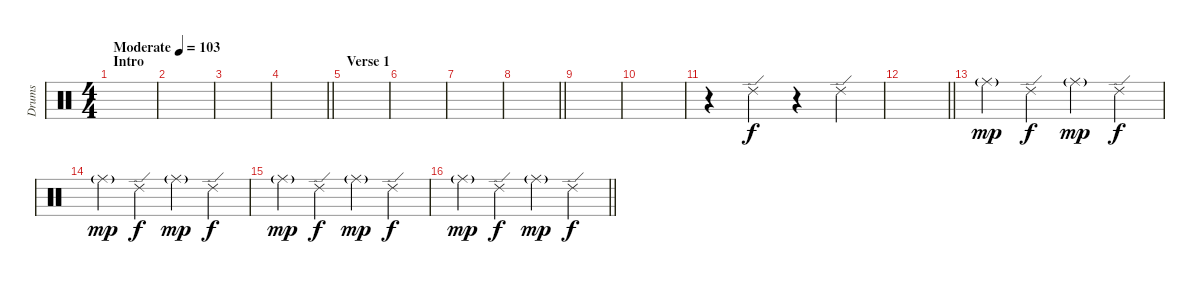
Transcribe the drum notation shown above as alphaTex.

\track ("Drums" "Drums") {instrument percussion}
\staff {score}
\articulation defaults
\ts (4 4)
\section ("" "Intro")
\tempo (103 "Moderate")
\clef neutral
\ks c
|
|
|
\barLineRight lightlight
|
\section ("" "Verse 1")
|
|
|
\barLineRight lightlight
|
|
|
r.4 "Ride (edge) 2".4 r.4 "Ride (edge) 2".4 |
\barLineRight lightlight
|
"Ride (middle)"{g}.4{dy mp} "Ride (edge) 2".4{dy f} "Ride (middle)"{g}.4{dy mp} "Ride (edge) 2".4{dy f} |
"Ride (middle)"{g}.4{dy mp} "Ride (edge) 2".4{dy f} "Ride (middle)"{g}.4{dy mp} "Ride (edge) 2".4{dy f} |
"Ride (middle)"{g}.4{dy mp} "Ride (edge) 2".4{dy f} "Ride (middle)"{g}.4{dy mp} "Ride (edge) 2".4{dy f} |
\barLineRight lightlight "Ride (middle)"{g}.4{dy mp} "Ride (edge) 2".4{dy f} "Ride (middle)"{g}.4{dy mp} "Ride (edge) 2".4{dy f}
